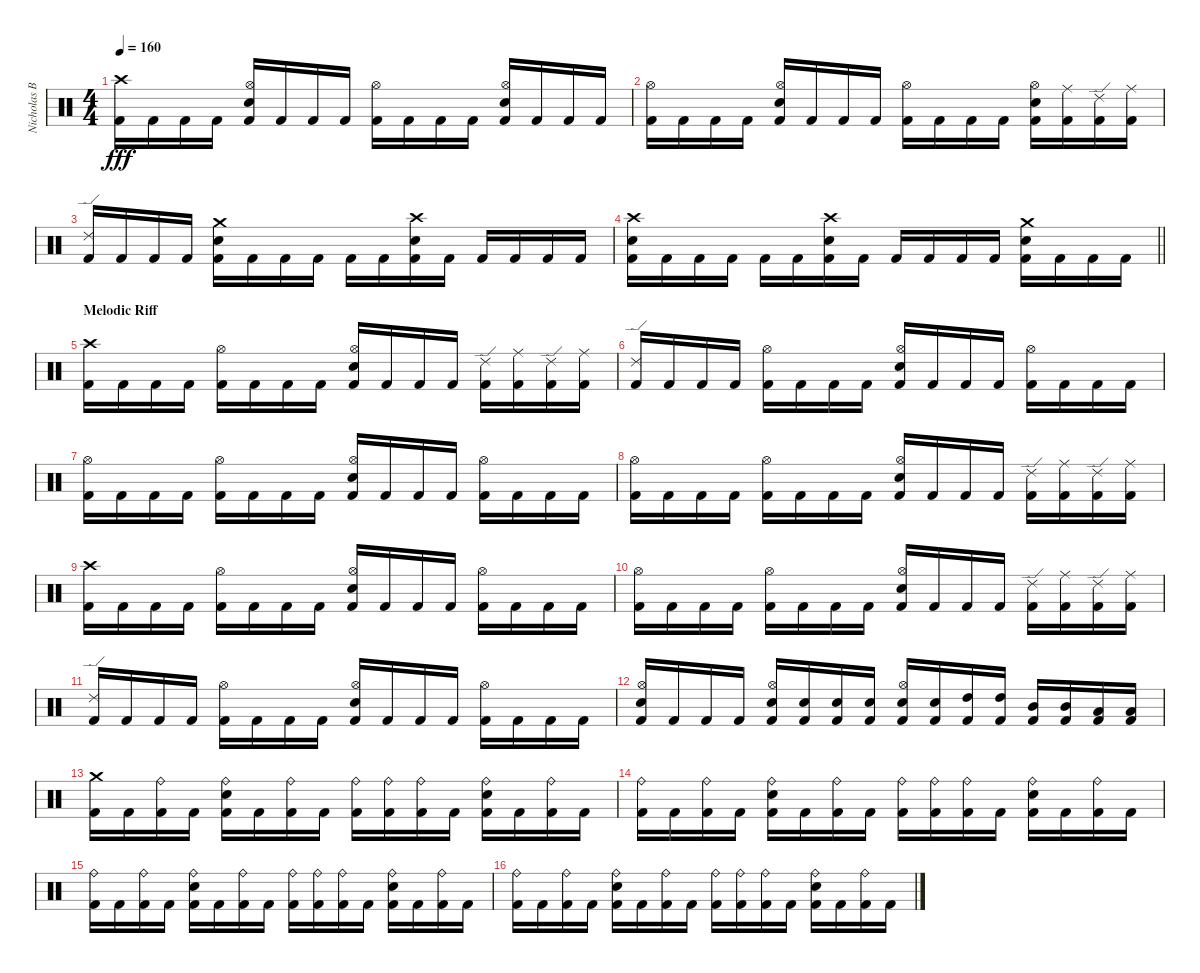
\track ("Nicholas Barker" "Nicholas B") {instrument percussion}
\staff {score}
\articulation defaults
\ts (4 4)
\tempo 160
\clef neutral
\ks c
("Crash high (hit)" "Kick (hit) 2").16{dy fff} "Kick (hit) 2".16 "Kick (hit) 2".16 "Kick (hit) 2".16 ("Hi-Hat (open)" "Snare (hit) 2" "Kick (hit) 2").16 "Kick (hit) 2".16 "Kick (hit) 2".16 "Kick (hit) 2".16 ("Hi-Hat (open)" "Kick (hit) 2").16 "Kick (hit) 2".16 "Kick (hit) 2".16 "Kick (hit) 2".16 ("Hi-Hat (open)" "Snare (hit) 2" "Kick (hit) 2").16 "Kick (hit) 2".16 "Kick (hit) 2".16 "Kick (hit) 2".16 |
("Hi-Hat (open)" "Kick (hit) 2").16 "Kick (hit) 2".16 "Kick (hit) 2".16 "Kick (hit) 2".16 ("Hi-Hat (open)" "Snare (hit) 2" "Kick (hit) 2").16 "Kick (hit) 2".16 "Kick (hit) 2".16 "Kick (hit) 2".16 ("Hi-Hat (open)" "Kick (hit) 2").16 "Kick (hit) 2".16 "Kick (hit) 2".16 "Kick (hit) 2".16 ("Hi-Hat (open)" "Snare (hit) 2" "Kick (hit) 2").16 ("Ride (middle)" "Kick (hit) 2").16 ("Ride (edge) 2" "Kick (hit) 2").16 ("Ride (middle)" "Kick (hit) 2").16 |
("Ride (edge) 2" "Kick (hit) 2").16 "Kick (hit) 2".16 "Kick (hit) 2".16 "Kick (hit) 2".16 ("Crash medium (hit)" "Snare (hit) 2" "Kick (hit) 2").16 "Kick (hit) 2".16 "Kick (hit) 2".16 "Kick (hit) 2".16 "Kick (hit) 2".16 "Kick (hit) 2".16 ("Crash high (hit)" "Snare (hit) 2" "Kick (hit) 2").16 "Kick (hit) 2".16 "Kick (hit) 2".16 "Kick (hit) 2".16 "Kick (hit) 2".16 "Kick (hit) 2".16 |
\barLineRight lightlight
("Crash high (hit)" "Snare (hit) 2" "Kick (hit) 2").16 "Kick (hit) 2".16 "Kick (hit) 2".16 "Kick (hit) 2".16 "Kick (hit) 2".16 "Kick (hit) 2".16 ("Crash high (hit)" "Snare (hit) 2" "Kick (hit) 2").16 "Kick (hit) 2".16 "Kick (hit) 2".16 "Kick (hit) 2".16 "Kick (hit) 2".16 "Kick (hit) 2".16 ("Crash medium (hit)" "Snare (hit) 2" "Kick (hit) 2").16 "Kick (hit) 2".16 "Kick (hit) 2".16 "Kick (hit) 2".16 |
\section ("" "Melodic Riff")
("Crash high (hit)" "Kick (hit) 2").16 "Kick (hit) 2".16 "Kick (hit) 2".16 "Kick (hit) 2".16 ("Hi-Hat (open)" "Kick (hit) 2").16 "Kick (hit) 2".16 "Kick (hit) 2".16 "Kick (hit) 2".16 ("Hi-Hat (open)" "Snare (hit) 2" "Kick (hit) 2").16 "Kick (hit) 2".16 "Kick (hit) 2".16 "Kick (hit) 2".16 ("Ride (edge) 2" "Kick (hit) 2").16 ("Ride (middle)" "Kick (hit) 2").16 ("Ride (edge) 2" "Kick (hit) 2").16 ("Ride (middle)" "Kick (hit) 2").16 |
("Ride (edge) 2" "Kick (hit) 2").16 "Kick (hit) 2".16 "Kick (hit) 2".16 "Kick (hit) 2".16 ("Hi-Hat (open)" "Kick (hit) 2").16 "Kick (hit) 2".16 "Kick (hit) 2".16 "Kick (hit) 2".16 ("Hi-Hat (open)" "Snare (hit) 2" "Kick (hit) 2").16 "Kick (hit) 2".16 "Kick (hit) 2".16 "Kick (hit) 2".16 ("Hi-Hat (open)" "Kick (hit) 2").16 "Kick (hit) 2".16 "Kick (hit) 2".16 "Kick (hit) 2".16 |
("Hi-Hat (open)" "Kick (hit) 2").16 "Kick (hit) 2".16 "Kick (hit) 2".16 "Kick (hit) 2".16 ("Hi-Hat (open)" "Kick (hit) 2").16 "Kick (hit) 2".16 "Kick (hit) 2".16 "Kick (hit) 2".16 ("Hi-Hat (open)" "Snare (hit) 2" "Kick (hit) 2").16 "Kick (hit) 2".16 "Kick (hit) 2".16 "Kick (hit) 2".16 ("Hi-Hat (open)" "Kick (hit) 2").16 "Kick (hit) 2".16 "Kick (hit) 2".16 "Kick (hit) 2".16 |
("Hi-Hat (open)" "Kick (hit) 2").16 "Kick (hit) 2".16 "Kick (hit) 2".16 "Kick (hit) 2".16 ("Hi-Hat (open)" "Kick (hit) 2").16 "Kick (hit) 2".16 "Kick (hit) 2".16 "Kick (hit) 2".16 ("Hi-Hat (open)" "Snare (hit) 2" "Kick (hit) 2").16 "Kick (hit) 2".16 "Kick (hit) 2".16 "Kick (hit) 2".16 ("Ride (edge) 2" "Kick (hit) 2").16 ("Ride (middle)" "Kick (hit) 2").16 ("Ride (edge) 2" "Kick (hit) 2").16 ("Ride (middle)" "Kick (hit) 2").16 |
("Crash high (hit)" "Kick (hit) 2").16 "Kick (hit) 2".16 "Kick (hit) 2".16 "Kick (hit) 2".16 ("Hi-Hat (open)" "Kick (hit) 2").16 "Kick (hit) 2".16 "Kick (hit) 2".16 "Kick (hit) 2".16 ("Hi-Hat (open)" "Snare (hit) 2" "Kick (hit) 2").16 "Kick (hit) 2".16 "Kick (hit) 2".16 "Kick (hit) 2".16 ("Hi-Hat (open)" "Kick (hit) 2").16 "Kick (hit) 2".16 "Kick (hit) 2".16 "Kick (hit) 2".16 |
("Hi-Hat (open)" "Kick (hit) 2").16 "Kick (hit) 2".16 "Kick (hit) 2".16 "Kick (hit) 2".16 ("Hi-Hat (open)" "Kick (hit) 2").16 "Kick (hit) 2".16 "Kick (hit) 2".16 "Kick (hit) 2".16 ("Hi-Hat (open)" "Snare (hit) 2" "Kick (hit) 2").16 "Kick (hit) 2".16 "Kick (hit) 2".16 "Kick (hit) 2".16 ("Ride (edge) 2" "Kick (hit) 2").16 ("Ride (middle)" "Kick (hit) 2").16 ("Ride (edge) 2" "Kick (hit) 2").16 ("Ride (middle)" "Kick (hit) 2").16 |
("Ride (edge) 2" "Kick (hit) 2").16 "Kick (hit) 2".16 "Kick (hit) 2".16 "Kick (hit) 2".16 ("Hi-Hat (open)" "Kick (hit) 2").16 "Kick (hit) 2".16 "Kick (hit) 2".16 "Kick (hit) 2".16 ("Hi-Hat (open)" "Snare (hit) 2" "Kick (hit) 2").16 "Kick (hit) 2".16 "Kick (hit) 2".16 "Kick (hit) 2".16 ("Hi-Hat (open)" "Kick (hit) 2").16 "Kick (hit) 2".16 "Kick (hit) 2".16 "Kick (hit) 2".16 |
("Hi-Hat (open)" "Snare (hit) 2" "Kick (hit) 2").16 "Kick (hit) 2".16 "Kick (hit) 2".16 "Kick (hit) 2".16 ("Hi-Hat (open)" "Snare (hit) 2" "Kick (hit) 2").16 ("Snare (hit) 2" "Kick (hit) 2").16 ("Snare (hit) 2" "Kick (hit) 2").16 ("Snare (hit) 2" "Kick (hit) 2").16 ("Hi-Hat (open)" "Snare (hit) 2" "Kick (hit) 2").16 ("Snare (hit) 2" "Kick (hit) 2").16 ("High Tom (hit)" "Kick (hit) 2").16 ("High Tom (hit)" "Kick (hit) 2").16 ("Mid Tom (hit)" "Kick (hit) 2").16 ("Mid Tom (hit)" "Kick (hit) 2").16 ("Low Tom (hit)" "Kick (hit) 2").16 ("Low Tom (hit)" "Kick (hit) 2").16 |
("Crash medium (hit)" "Kick (hit) 2").16 "Kick (hit) 2".16 ("Ride (bell)" "Kick (hit) 2").16 "Kick (hit) 2".16 ("Ride (bell)" "Snare (hit) 2" "Kick (hit) 2").16 "Kick (hit) 2".16 ("Ride (bell)" "Kick (hit) 2").16 "Kick (hit) 2".16 ("Ride (bell)" "Kick (hit) 2").16 ("Ride (bell)" "Kick (hit) 2").16 ("Ride (bell)" "Kick (hit) 2").16 "Kick (hit) 2".16 ("Ride (bell)" "Snare (hit) 2" "Kick (hit) 2").16 "Kick (hit) 2".16 ("Ride (bell)" "Kick (hit) 2").16 "Kick (hit) 2".16 |
("Ride (bell)" "Kick (hit) 2").16 "Kick (hit) 2".16 ("Ride (bell)" "Kick (hit) 2").16 "Kick (hit) 2".16 ("Ride (bell)" "Snare (hit) 2" "Kick (hit) 2").16 "Kick (hit) 2".16 ("Ride (bell)" "Kick (hit) 2").16 "Kick (hit) 2".16 ("Ride (bell)" "Kick (hit) 2").16 ("Ride (bell)" "Kick (hit) 2").16 ("Ride (bell)" "Kick (hit) 2").16 "Kick (hit) 2".16 ("Ride (bell)" "Snare (hit) 2" "Kick (hit) 2").16 "Kick (hit) 2".16 ("Ride (bell)" "Kick (hit) 2").16 "Kick (hit) 2".16 |
("Ride (bell)" "Kick (hit) 2").16 "Kick (hit) 2".16 ("Ride (bell)" "Kick (hit) 2").16 "Kick (hit) 2".16 ("Ride (bell)" "Snare (hit) 2" "Kick (hit) 2").16 "Kick (hit) 2".16 ("Ride (bell)" "Kick (hit) 2").16 "Kick (hit) 2".16 ("Ride (bell)" "Kick (hit) 2").16 ("Ride (bell)" "Kick (hit) 2").16 ("Ride (bell)" "Kick (hit) 2").16 "Kick (hit) 2".16 ("Ride (bell)" "Snare (hit) 2" "Kick (hit) 2").16 "Kick (hit) 2".16 ("Ride (bell)" "Kick (hit) 2").16 "Kick (hit) 2".16 |
("Ride (bell)" "Kick (hit) 2").16 "Kick (hit) 2".16 ("Ride (bell)" "Kick (hit) 2").16 "Kick (hit) 2".16 ("Ride (bell)" "Snare (hit) 2" "Kick (hit) 2").16 "Kick (hit) 2".16 ("Ride (bell)" "Kick (hit) 2").16 "Kick (hit) 2".16 ("Ride (bell)" "Kick (hit) 2").16 ("Ride (bell)" "Kick (hit) 2").16 ("Ride (bell)" "Kick (hit) 2").16 "Kick (hit) 2".16 ("Ride (bell)" "Snare (hit) 2" "Kick (hit) 2").16 "Kick (hit) 2".16 ("Ride (bell)" "Kick (hit) 2").16 "Kick (hit) 2".16
